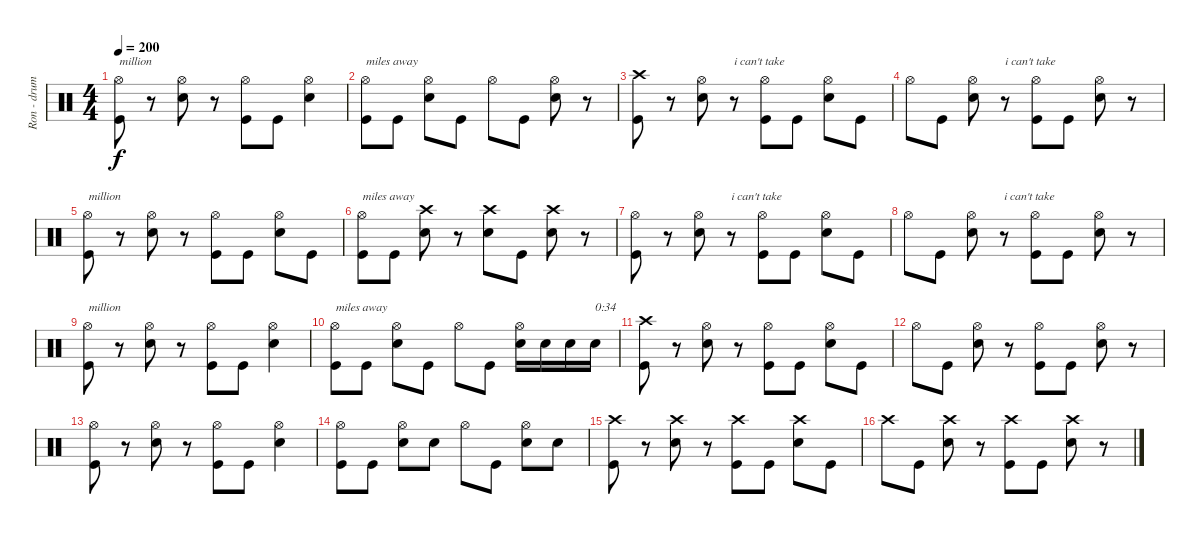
\track ("Ron - drums" "Ron - drum") {instrument percussion}
\staff {score}
\articulation defaults
\ts (4 4)
\tempo 200
\clef neutral
\ks c
("Hi-Hat (open)" "Kick (hit)").8{txt "million" dy f} r.8 ("Hi-Hat (open)" "Snare (hit) 2").8 r.8 ("Hi-Hat (open)" "Kick (hit)").8 "Kick (hit)".8 ("Hi-Hat (open)" "Snare (hit) 2").4 |
("Hi-Hat (open)" "Kick (hit)").8{txt "miles away"} "Kick (hit)".8 ("Hi-Hat (open)" "Snare (hit) 2").8 "Kick (hit)".8 "Hi-Hat (open)".8 "Kick (hit)".8 ("Hi-Hat (open)" "Snare (hit) 2").8 r.8 |
("Crash high (hit)" "Kick (hit)").8 r.8 ("Hi-Hat (open)" "Snare (hit) 2").8 r.8{txt "i can't take"} ("Hi-Hat (open)" "Kick (hit)").8 "Kick (hit)".8 ("Hi-Hat (open)" "Snare (hit) 2").8 "Kick (hit)".8 |
"Hi-Hat (open)".8 "Kick (hit)".8 ("Hi-Hat (open)" "Snare (hit) 2").8 r.8{txt "i can't take"} ("Hi-Hat (open)" "Kick (hit)").8 "Kick (hit)".8 ("Hi-Hat (open)" "Snare (hit) 2").8 r.8 |
("Hi-Hat (open)" "Kick (hit)").8{txt "million"} r.8 ("Hi-Hat (open)" "Snare (hit) 2").8 r.8 ("Hi-Hat (open)" "Kick (hit)").8 "Kick (hit)".8 ("Hi-Hat (open)" "Snare (hit) 2").8 "Kick (hit)".8 |
("Hi-Hat (open)" "Kick (hit)").8{txt "miles away"} "Kick (hit)".8 ("Crash high (hit)" "Snare (hit) 2").8 r.8 ("Crash high (hit)" "Snare (hit) 2").8 "Kick (hit)".8 ("Crash high (hit)" "Snare (hit) 2").8 r.8 |
("Hi-Hat (open)" "Kick (hit)").8 r.8 ("Hi-Hat (open)" "Snare (hit) 2").8 r.8{txt "i can't take"} ("Hi-Hat (open)" "Kick (hit)").8 "Kick (hit)".8 ("Hi-Hat (open)" "Snare (hit) 2").8 "Kick (hit)".8 |
"Hi-Hat (open)".8 "Kick (hit)".8 ("Hi-Hat (open)" "Snare (hit) 2").8 r.8{txt "i can't take"} ("Hi-Hat (open)" "Kick (hit)").8 "Kick (hit)".8 ("Hi-Hat (open)" "Snare (hit) 2").8 r.8 |
("Hi-Hat (open)" "Kick (hit)").8{txt "million"} r.8 ("Hi-Hat (open)" "Snare (hit) 2").8 r.8 ("Hi-Hat (open)" "Kick (hit)").8 "Kick (hit)".8 ("Hi-Hat (open)" "Snare (hit) 2").4 |
("Hi-Hat (open)" "Kick (hit)").8{txt "miles away"} "Kick (hit)".8 ("Hi-Hat (open)" "Snare (hit) 2").8 "Kick (hit)".8 "Hi-Hat (open)".8 "Kick (hit)".8 ("Hi-Hat (open)" "Snare (hit) 2").16 "Snare (hit) 2".16 "Snare (hit) 2".16 "Snare (hit) 2".16{txt "0:34"} |
("Crash high (hit)" "Kick (hit)").8 r.8 ("Hi-Hat (open)" "Snare (hit) 2").8 r.8 ("Hi-Hat (open)" "Kick (hit)").8 "Kick (hit)".8 ("Hi-Hat (open)" "Snare (hit) 2").8 "Kick (hit)".8 |
"Hi-Hat (open)".8 "Kick (hit)".8 ("Hi-Hat (open)" "Snare (hit) 2").8 r.8 ("Hi-Hat (open)" "Kick (hit)").8 "Kick (hit)".8 ("Hi-Hat (open)" "Snare (hit) 2").8 r.8 |
("Hi-Hat (open)" "Kick (hit)").8 r.8 ("Hi-Hat (open)" "Snare (hit) 2").8 r.8 ("Hi-Hat (open)" "Kick (hit)").8 "Kick (hit)".8 ("Hi-Hat (open)" "Snare (hit) 2").4 |
("Hi-Hat (open)" "Kick (hit)").8 "Kick (hit)".8 ("Hi-Hat (open)" "Snare (hit) 2").8 "Snare (hit) 2".8 "Hi-Hat (open)".8 "Kick (hit)".8 ("Hi-Hat (open)" "Snare (hit) 2").8 "Snare (hit) 2".8 |
("Crash high (hit)" "Kick (hit)").8 r.8 ("Crash high (hit)" "Snare (hit) 2").8 r.8 ("Crash high (hit)" "Kick (hit)").8 "Kick (hit)".8 ("Crash high (hit)" "Snare (hit) 2").8 "Kick (hit)".8 |
"Crash high (hit)".8 "Kick (hit)".8 ("Crash high (hit)" "Snare (hit) 2").8 r.8 ("Crash high (hit)" "Kick (hit)").8 "Kick (hit)".8 ("Crash high (hit)" "Snare (hit) 2").8 r.8
